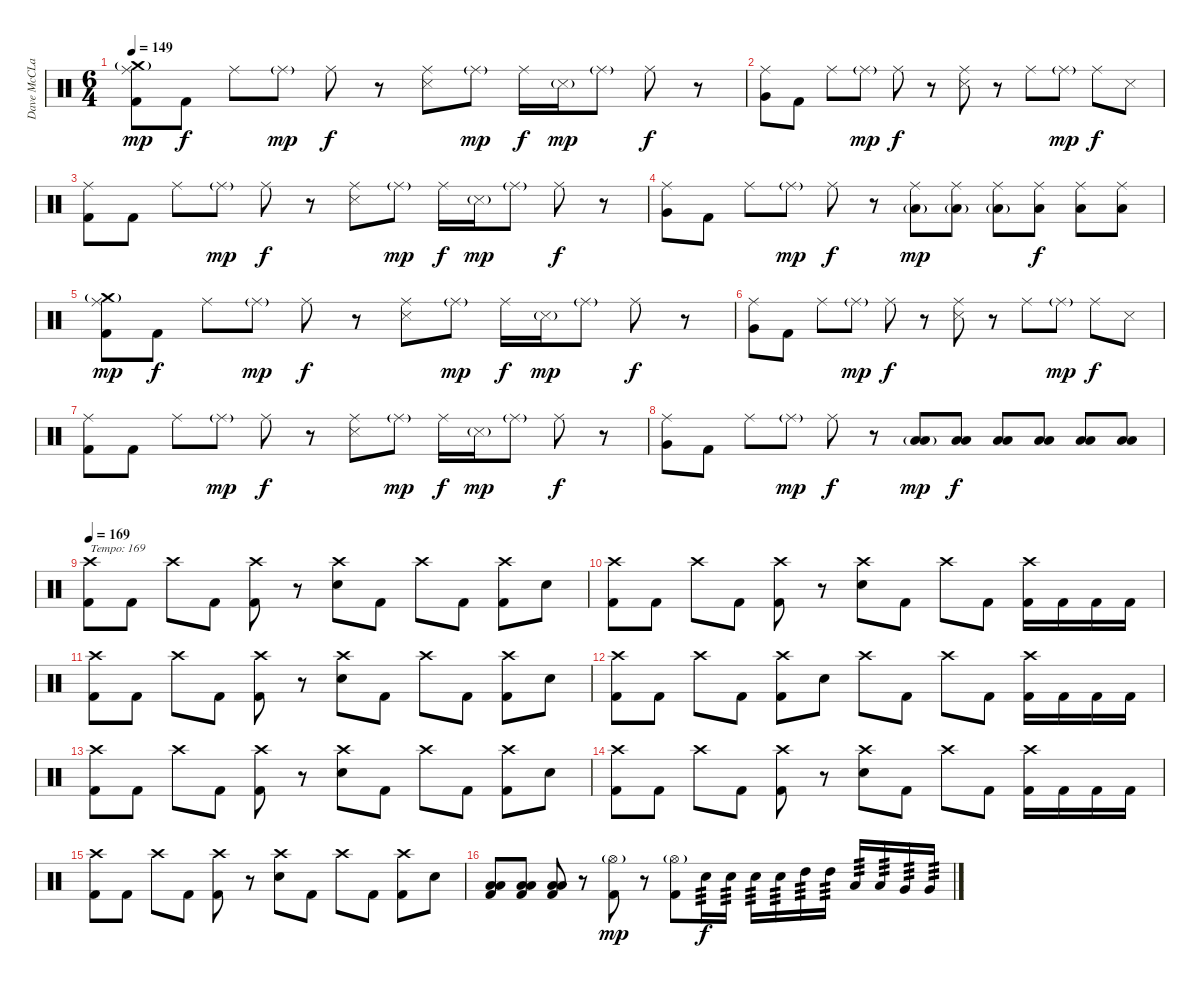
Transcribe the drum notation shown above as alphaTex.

\track ("Dave McCLain" "Dave McCLa") {instrument percussion}
\staff {score}
\articulation defaults
\ts (6 4)
\tempo 149
\clef neutral
\ks c
("Ride (middle)" "Crash medium (hit)"{g} "Kick (hit) 2").8{dy mp} "Kick (hit) 2".8{dy f} "Ride (middle)".8 "Ride (middle)"{g}.8{dy mp} "Ride (middle)".8{dy f} r.8 ("Ride (middle)" "Snare (side stick) 3").8 "Ride (middle)"{g}.8{dy mp} "Ride (middle)".16{dy f} "Snare (side stick) 3"{g}.16{dy mp} "Ride (middle)"{g}.8 "Ride (middle)".8{dy f} r.8 |
("Ride (middle)" "Very Low Tom (hit)").8 "Kick (hit) 2".8 "Ride (middle)".8 "Ride (middle)"{g}.8{dy mp} "Ride (middle)".8{dy f} r.8 ("Ride (middle)" "Snare (side stick) 3").8 r.8 "Ride (middle)".8 "Ride (middle)"{g}.8{dy mp} "Ride (middle)".8{dy f} "Snare (side stick) 3".8 |
("Ride (middle)" "Kick (hit) 2").8 "Kick (hit) 2".8 "Ride (middle)".8 "Ride (middle)"{g}.8{dy mp} "Ride (middle)".8{dy f} r.8 ("Ride (middle)" "Snare (side stick) 3").8 "Ride (middle)"{g}.8{dy mp} "Ride (middle)".16{dy f} "Snare (side stick) 3"{g}.16{dy mp} "Ride (middle)"{g}.8 "Ride (middle)".8{dy f} r.8 |
("Ride (middle)" "Very Low Tom (hit)").8 "Kick (hit) 2".8 "Ride (middle)".8 "Ride (middle)"{g}.8{dy mp} "Ride (middle)".8{dy f} r.8 ("Ride (middle)" "Low Floor Tom (hit)"{g}).8{dy mp} ("Ride (middle)" "Low Floor Tom (hit)"{g}).8 ("Ride (middle)" "Low Floor Tom (hit)"{g}).8 ("Ride (middle)" "Low Floor Tom (hit)").8{dy f} ("Ride (middle)" "Low Floor Tom (hit)").8 ("Ride (middle)" "Low Floor Tom (hit)").8 |
("Ride (middle)" "Crash medium (hit)"{g} "Kick (hit) 2").8{dy mp} "Kick (hit) 2".8{dy f} "Ride (middle)".8 "Ride (middle)"{g}.8{dy mp} "Ride (middle)".8{dy f} r.8 ("Ride (middle)" "Snare (side stick) 3").8 "Ride (middle)"{g}.8{dy mp} "Ride (middle)".16{dy f} "Snare (side stick) 3"{g}.16{dy mp} "Ride (middle)"{g}.8 "Ride (middle)".8{dy f} r.8 |
("Ride (middle)" "Very Low Tom (hit)").8 "Kick (hit) 2".8 "Ride (middle)".8 "Ride (middle)"{g}.8{dy mp} "Ride (middle)".8{dy f} r.8 ("Ride (middle)" "Snare (side stick) 3").8 r.8 "Ride (middle)".8 "Ride (middle)"{g}.8{dy mp} "Ride (middle)".8{dy f} "Snare (side stick) 3".8 |
("Ride (middle)" "Kick (hit) 2").8 "Kick (hit) 2".8 "Ride (middle)".8 "Ride (middle)"{g}.8{dy mp} "Ride (middle)".8{dy f} r.8 ("Ride (middle)" "Snare (side stick) 3").8 "Ride (middle)"{g}.8{dy mp} "Ride (middle)".16{dy f} "Snare (side stick) 3"{g}.16{dy mp} "Ride (middle)"{g}.8 "Ride (middle)".8{dy f} r.8 |
("Ride (middle)" "Very Low Tom (hit)").8 "Kick (hit) 2".8 "Ride (middle)".8 "Ride (middle)"{g}.8{dy mp} "Ride (middle)".8{dy f} r.8 ("Low Floor Tom (hit)" "Low Floor Tom (hit)"{g}).8{dy mp} ("Low Floor Tom (hit)" "Low Floor Tom (hit)").8{dy f} ("Low Floor Tom (hit)" "Low Floor Tom (hit)").8 ("Low Floor Tom (hit)" "Low Floor Tom (hit)").8 ("Low Floor Tom (hit)" "Low Floor Tom (hit)").8 ("Low Floor Tom (hit)" "Low Floor Tom (hit)").8 |
\tempo 169
("Crash high (hit)" "Kick (hit) 2").8{txt "Tempo: 169"} "Kick (hit) 2".8 "Crash high (hit)".8 "Kick (hit) 2".8 ("Crash high (hit)" "Kick (hit) 2").8 r.8 ("Crash high (hit)" "Electric Snare (hit)").8 "Kick (hit) 2".8 "Crash high (hit)".8 "Kick (hit) 2".8 ("Crash high (hit)" "Kick (hit) 2").8 "Electric Snare (hit)".8 |
("Crash high (hit)" "Kick (hit) 2").8 "Kick (hit) 2".8 "Crash high (hit)".8 "Kick (hit) 2".8 ("Crash high (hit)" "Kick (hit) 2").8 r.8 ("Crash high (hit)" "Electric Snare (hit)").8 "Kick (hit) 2".8 "Crash high (hit)".8 "Kick (hit) 2".8 ("Crash high (hit)" "Kick (hit) 2").16 "Kick (hit) 2".16 "Kick (hit) 2".16 "Kick (hit) 2".16 |
("Crash high (hit)" "Kick (hit) 2").8 "Kick (hit) 2".8 "Crash high (hit)".8 "Kick (hit) 2".8 ("Crash high (hit)" "Kick (hit) 2").8 r.8 ("Crash high (hit)" "Electric Snare (hit)").8 "Kick (hit) 2".8 "Crash high (hit)".8 "Kick (hit) 2".8 ("Crash high (hit)" "Kick (hit) 2").8 "Electric Snare (hit)".8 |
("Crash high (hit)" "Kick (hit) 2").8 "Kick (hit) 2".8 "Crash high (hit)".8 "Kick (hit) 2".8 ("Crash high (hit)" "Kick (hit) 2").8 "Electric Snare (hit)".8 "Crash high (hit)".8 "Kick (hit) 2".8 "Crash high (hit)".8 "Kick (hit) 2".8 ("Crash high (hit)" "Kick (hit) 2").16 "Kick (hit) 2".16 "Kick (hit) 2".16 "Kick (hit) 2".16 |
("Crash high (hit)" "Kick (hit) 2").8 "Kick (hit) 2".8 "Crash high (hit)".8 "Kick (hit) 2".8 ("Crash high (hit)" "Kick (hit) 2").8 r.8 ("Crash high (hit)" "Electric Snare (hit)").8 "Kick (hit) 2".8 "Crash high (hit)".8 "Kick (hit) 2".8 ("Crash high (hit)" "Kick (hit) 2").8 "Electric Snare (hit)".8 |
("Crash high (hit)" "Kick (hit) 2").8 "Kick (hit) 2".8 "Crash high (hit)".8 "Kick (hit) 2".8 ("Crash high (hit)" "Kick (hit) 2").8 r.8 ("Crash high (hit)" "Electric Snare (hit)").8 "Kick (hit) 2".8 "Crash high (hit)".8 "Kick (hit) 2".8 ("Crash high (hit)" "Kick (hit) 2").16 "Kick (hit) 2".16 "Kick (hit) 2".16 "Kick (hit) 2".16 |
("Crash high (hit)" "Kick (hit) 2").8 "Kick (hit) 2".8 "Crash high (hit)".8 "Kick (hit) 2".8 ("Crash high (hit)" "Kick (hit) 2").8 r.8 ("Crash high (hit)" "Electric Snare (hit)").8 "Kick (hit) 2".8 "Crash high (hit)".8 "Kick (hit) 2".8 ("Crash high (hit)" "Kick (hit) 2").8 "Electric Snare (hit)".8 |
("Low Floor Tom (hit)" "Low Floor Tom (hit)" "Kick (hit) 2").8 ("Low Floor Tom (hit)" "Low Floor Tom (hit)" "Kick (hit) 2").8 ("Low Floor Tom (hit)" "Low Floor Tom (hit)" "Kick (hit) 2").8 r.8 ("Hi-Hat (open)"{g} "Kick (hit) 2").8{dy mp} r.8 ("Hi-Hat (open)"{g} "Kick (hit) 2").8 "Electric Snare (hit)".16{tp 3 dy f} "Electric Snare (hit)".16{tp 3} "Electric Snare (hit)".16{tp 3} "Electric Snare (hit)".16{tp 3} "High Tom (hit)".16{tp 3} "High Tom (hit)".16{tp 3} "Low Tom (hit)".16{tp 3} "Low Tom (hit)".16{tp 3} "Very Low Tom (hit)".16{tp 3} "Very Low Tom (hit)".16{tp 3}
